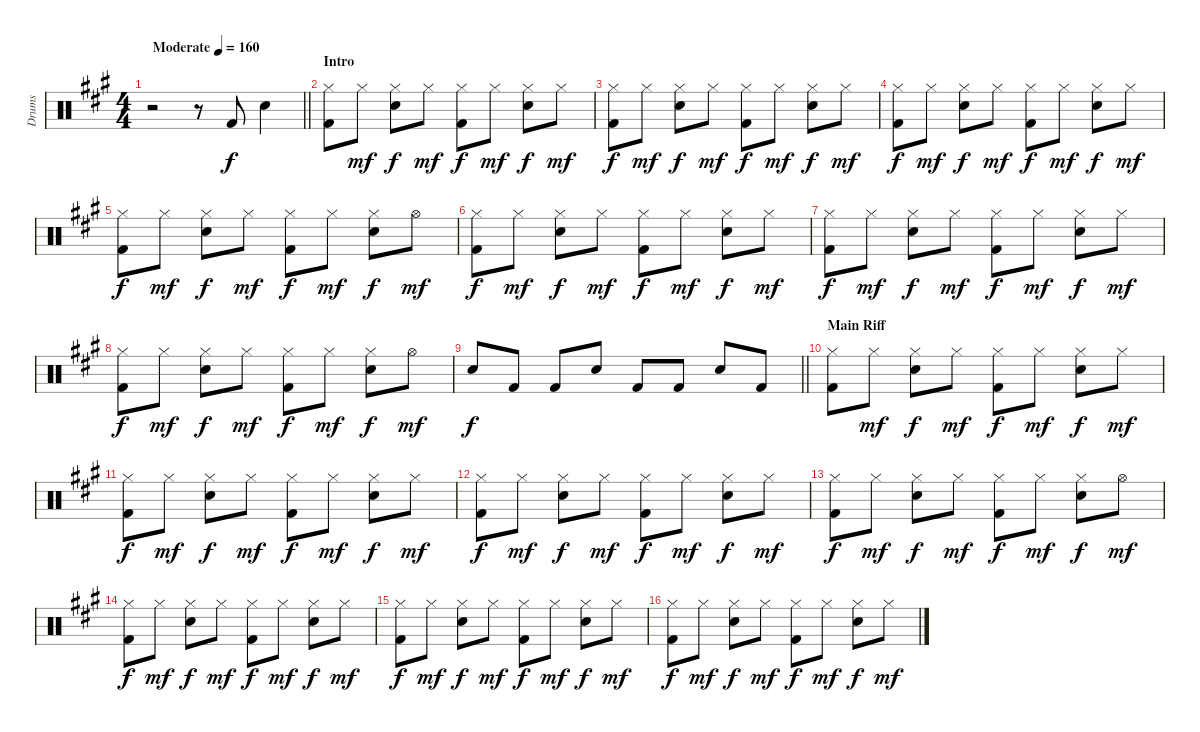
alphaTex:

\track ("Drums" "Drums") {instrument percussion}
\staff {score}
\articulation defaults
\ts (4 4)
\tempo (160 "Moderate")
\clef neutral
\barLineRight lightlight
\ks a
r.2{dy f} r.8 "Kick (hit) 2".8 "Electric Snare (hit)".4 |
\section ("" "Intro")
("Hi-Hat (closed)" "Kick (hit) 2").8 "Hi-Hat (closed)".8{dy mf} ("Hi-Hat (closed)" "Electric Snare (hit)").8{dy f} "Hi-Hat (closed)".8{dy mf} ("Hi-Hat (closed)" "Kick (hit) 2").8{dy f} "Hi-Hat (closed)".8{dy mf} ("Hi-Hat (closed)" "Electric Snare (hit)").8{dy f} "Hi-Hat (closed)".8{dy mf} |
("Hi-Hat (closed)" "Kick (hit) 2").8{dy f} "Hi-Hat (closed)".8{dy mf} ("Hi-Hat (closed)" "Electric Snare (hit)").8{dy f} "Hi-Hat (closed)".8{dy mf} ("Hi-Hat (closed)" "Kick (hit) 2").8{dy f} "Hi-Hat (closed)".8{dy mf} ("Hi-Hat (closed)" "Electric Snare (hit)").8{dy f} "Hi-Hat (closed)".8{dy mf} |
("Hi-Hat (closed)" "Kick (hit) 2").8{dy f} "Hi-Hat (closed)".8{dy mf} ("Hi-Hat (closed)" "Electric Snare (hit)").8{dy f} "Hi-Hat (closed)".8{dy mf} ("Hi-Hat (closed)" "Kick (hit) 2").8{dy f} "Hi-Hat (closed)".8{dy mf} ("Hi-Hat (closed)" "Electric Snare (hit)").8{dy f} "Hi-Hat (closed)".8{dy mf} |
("Hi-Hat (closed)" "Kick (hit) 2").8{dy f} "Hi-Hat (closed)".8{dy mf} ("Hi-Hat (closed)" "Electric Snare (hit)").8{dy f} "Hi-Hat (closed)".8{dy mf} ("Hi-Hat (closed)" "Kick (hit) 2").8{dy f} "Hi-Hat (closed)".8{dy mf} ("Hi-Hat (closed)" "Electric Snare (hit)").8{dy f} "Hi-Hat (open)".8{dy mf} |
("Hi-Hat (closed)" "Kick (hit) 2").8{dy f} "Hi-Hat (closed)".8{dy mf} ("Hi-Hat (closed)" "Electric Snare (hit)").8{dy f} "Hi-Hat (closed)".8{dy mf} ("Hi-Hat (closed)" "Kick (hit) 2").8{dy f} "Hi-Hat (closed)".8{dy mf} ("Hi-Hat (closed)" "Electric Snare (hit)").8{dy f} "Hi-Hat (closed)".8{dy mf} |
("Hi-Hat (closed)" "Kick (hit) 2").8{dy f} "Hi-Hat (closed)".8{dy mf} ("Hi-Hat (closed)" "Electric Snare (hit)").8{dy f} "Hi-Hat (closed)".8{dy mf} ("Hi-Hat (closed)" "Kick (hit) 2").8{dy f} "Hi-Hat (closed)".8{dy mf} ("Hi-Hat (closed)" "Electric Snare (hit)").8{dy f} "Hi-Hat (closed)".8{dy mf} |
("Hi-Hat (closed)" "Kick (hit) 2").8{dy f} "Hi-Hat (closed)".8{dy mf} ("Hi-Hat (closed)" "Electric Snare (hit)").8{dy f} "Hi-Hat (closed)".8{dy mf} ("Hi-Hat (closed)" "Kick (hit) 2").8{dy f} "Hi-Hat (closed)".8{dy mf} ("Hi-Hat (closed)" "Electric Snare (hit)").8{dy f} "Hi-Hat (open)".8{dy mf} |
\barLineRight lightlight "Electric Snare (hit)".8{dy f} "Kick (hit) 2".8 "Kick (hit) 2".8 "Electric Snare (hit)".8 "Kick (hit) 2".8 "Kick (hit) 2".8 "Electric Snare (hit)".8 "Kick (hit) 2".8
|
\section ("" "Main Riff")
("Hi-Hat (closed)" "Kick (hit) 2").8 "Hi-Hat (closed)".8{dy mf} ("Hi-Hat (closed)" "Electric Snare (hit)").8{dy f} "Hi-Hat (closed)".8{dy mf} ("Hi-Hat (closed)" "Kick (hit) 2").8{dy f} "Hi-Hat (closed)".8{dy mf} ("Hi-Hat (closed)" "Electric Snare (hit)").8{dy f} "Hi-Hat (closed)".8{dy mf} |
("Hi-Hat (closed)" "Kick (hit) 2").8{dy f} "Hi-Hat (closed)".8{dy mf} ("Hi-Hat (closed)" "Electric Snare (hit)").8{dy f} "Hi-Hat (closed)".8{dy mf} ("Hi-Hat (closed)" "Kick (hit) 2").8{dy f} "Hi-Hat (closed)".8{dy mf} ("Hi-Hat (closed)" "Electric Snare (hit)").8{dy f} "Hi-Hat (closed)".8{dy mf} |
("Hi-Hat (closed)" "Kick (hit) 2").8{dy f} "Hi-Hat (closed)".8{dy mf} ("Hi-Hat (closed)" "Electric Snare (hit)").8{dy f} "Hi-Hat (closed)".8{dy mf} ("Hi-Hat (closed)" "Kick (hit) 2").8{dy f} "Hi-Hat (closed)".8{dy mf} ("Hi-Hat (closed)" "Electric Snare (hit)").8{dy f} "Hi-Hat (closed)".8{dy mf} |
("Hi-Hat (closed)" "Kick (hit) 2").8{dy f} "Hi-Hat (closed)".8{dy mf} ("Hi-Hat (closed)" "Electric Snare (hit)").8{dy f} "Hi-Hat (closed)".8{dy mf} ("Hi-Hat (closed)" "Kick (hit) 2").8{dy f} "Hi-Hat (closed)".8{dy mf} ("Hi-Hat (closed)" "Electric Snare (hit)").8{dy f} "Hi-Hat (open)".8{dy mf} |
("Hi-Hat (closed)" "Kick (hit) 2").8{dy f} "Hi-Hat (closed)".8{dy mf} ("Hi-Hat (closed)" "Electric Snare (hit)").8{dy f} "Hi-Hat (closed)".8{dy mf} ("Hi-Hat (closed)" "Kick (hit) 2").8{dy f} "Hi-Hat (closed)".8{dy mf} ("Hi-Hat (closed)" "Electric Snare (hit)").8{dy f} "Hi-Hat (closed)".8{dy mf} |
("Hi-Hat (closed)" "Kick (hit) 2").8{dy f} "Hi-Hat (closed)".8{dy mf} ("Hi-Hat (closed)" "Electric Snare (hit)").8{dy f} "Hi-Hat (closed)".8{dy mf} ("Hi-Hat (closed)" "Kick (hit) 2").8{dy f} "Hi-Hat (closed)".8{dy mf} ("Hi-Hat (closed)" "Electric Snare (hit)").8{dy f} "Hi-Hat (closed)".8{dy mf} |
("Hi-Hat (closed)" "Kick (hit) 2").8{dy f} "Hi-Hat (closed)".8{dy mf} ("Hi-Hat (closed)" "Electric Snare (hit)").8{dy f} "Hi-Hat (closed)".8{dy mf} ("Hi-Hat (closed)" "Kick (hit) 2").8{dy f} "Hi-Hat (closed)".8{dy mf} ("Hi-Hat (closed)" "Electric Snare (hit)").8{dy f} "Hi-Hat (closed)".8{dy mf}
